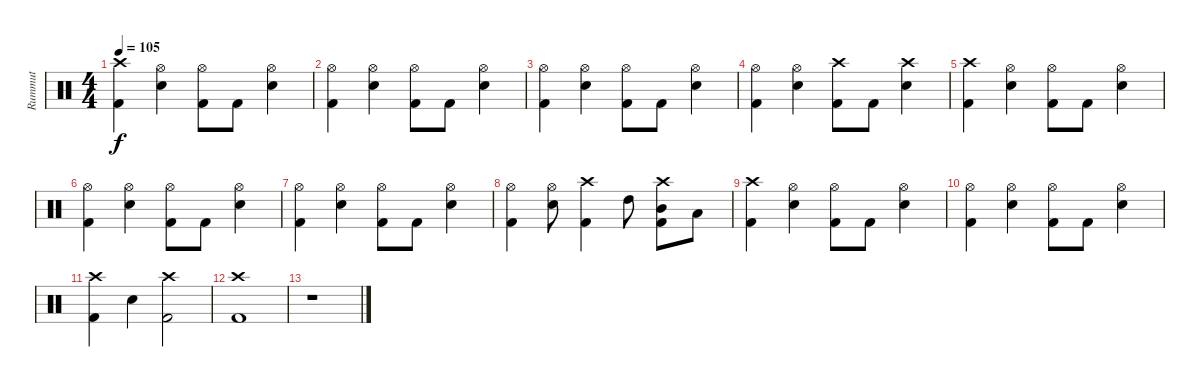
\track ("Rummut" "Rummut") {instrument percussion}
\staff {score}
\articulation defaults
\ts (4 4)
\tempo 105
\clef neutral
\ks c
("Crash high (hit)" "Kick (hit) 2").4{dy f} ("Hi-Hat (open)" "Snare (hit) 2").4 ("Hi-Hat (open)" "Kick (hit) 2").8 "Kick (hit) 2".8 ("Hi-Hat (open)" "Snare (hit) 2").4 |
("Hi-Hat (open)" "Kick (hit) 2").4 ("Hi-Hat (open)" "Snare (hit) 2").4 ("Hi-Hat (open)" "Kick (hit) 2").8 "Kick (hit) 2".8 ("Hi-Hat (open)" "Snare (hit) 2").4 |
("Hi-Hat (open)" "Kick (hit) 2").4 ("Hi-Hat (open)" "Snare (hit) 2").4 ("Hi-Hat (open)" "Kick (hit) 2").8 "Kick (hit) 2".8 ("Hi-Hat (open)" "Snare (hit) 2").4 |
("Hi-Hat (open)" "Kick (hit) 2").4 ("Hi-Hat (open)" "Snare (hit) 2").4 ("Crash high (hit)" "Kick (hit) 2").8 "Kick (hit) 2".8 ("Crash high (hit)" "Snare (hit) 2").4 |
("Crash high (hit)" "Kick (hit) 2").4 ("Hi-Hat (open)" "Snare (hit) 2").4 ("Hi-Hat (open)" "Kick (hit) 2").8 "Kick (hit) 2".8 ("Hi-Hat (open)" "Snare (hit) 2").4 |
("Hi-Hat (open)" "Kick (hit) 2").4 ("Hi-Hat (open)" "Snare (hit) 2").4 ("Hi-Hat (open)" "Kick (hit) 2").8 "Kick (hit) 2".8 ("Hi-Hat (open)" "Snare (hit) 2").4 |
("Hi-Hat (open)" "Kick (hit) 2").4 ("Hi-Hat (open)" "Snare (hit) 2").4 ("Hi-Hat (open)" "Kick (hit) 2").8 "Kick (hit) 2".8 ("Hi-Hat (open)" "Snare (hit) 2").4 |
("Hi-Hat (open)" "Kick (hit) 2").4 ("Hi-Hat (open)" "Snare (hit) 2").8 ("Crash high (hit)" "Kick (hit) 2").4 "High Tom (hit)".8 ("Crash high (hit)" "Mid Tom (hit)" "Kick (hit) 2").8 "Low Tom (hit)".8 |
("Crash high (hit)" "Kick (hit) 2").4 ("Hi-Hat (open)" "Snare (hit) 2").4 ("Hi-Hat (open)" "Kick (hit) 2").8 "Kick (hit) 2".8 ("Hi-Hat (open)" "Snare (hit) 2").4 |
("Hi-Hat (open)" "Kick (hit) 2").4 ("Hi-Hat (open)" "Snare (hit) 2").4 ("Hi-Hat (open)" "Kick (hit) 2").8 "Kick (hit) 2".8 ("Hi-Hat (open)" "Snare (hit) 2").4 |
("Crash high (hit)" "Kick (hit) 2").4 "Snare (hit) 2".4 ("Crash high (hit)" "Kick (hit) 2").2 |
("Crash high (hit)" "Kick (hit) 2").1 |
r.1
